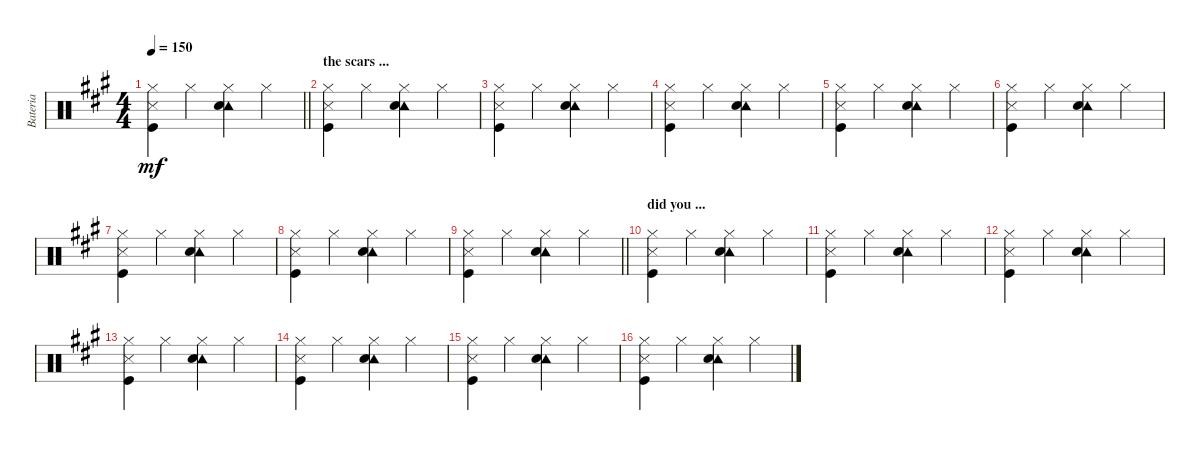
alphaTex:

\track ("Bateria" "Bateria") {instrument percussion}
\staff {score}
\articulation defaults
\ts (4 4)
\tempo 150
\clef neutral
\barLineRight lightlight
\ks a
("Hi-Hat (closed)" "Metronome (hit)" "Kick (hit)").4{dy mf} "Hi-Hat (closed)".4 ("Tambourine (hit)" "Hi-Hat (closed)" "Electric Snare (hit)").4 "Hi-Hat (closed)".4 |
\section ("" "the scars ...")
("Hi-Hat (closed)" "Metronome (hit)" "Kick (hit)").4 "Hi-Hat (closed)".4 ("Tambourine (hit)" "Hi-Hat (closed)" "Electric Snare (hit)").4 "Hi-Hat (closed)".4 |
("Hi-Hat (closed)" "Metronome (hit)" "Kick (hit)").4 "Hi-Hat (closed)".4 ("Tambourine (hit)" "Hi-Hat (closed)" "Electric Snare (hit)").4 "Hi-Hat (closed)".4 |
("Hi-Hat (closed)" "Metronome (hit)" "Kick (hit)").4 "Hi-Hat (closed)".4 ("Tambourine (hit)" "Hi-Hat (closed)" "Electric Snare (hit)").4 "Hi-Hat (closed)".4 |
("Hi-Hat (closed)" "Metronome (hit)" "Kick (hit)").4 "Hi-Hat (closed)".4 ("Tambourine (hit)" "Hi-Hat (closed)" "Electric Snare (hit)").4 "Hi-Hat (closed)".4 |
("Hi-Hat (closed)" "Metronome (hit)" "Kick (hit)").4 "Hi-Hat (closed)".4 ("Tambourine (hit)" "Hi-Hat (closed)" "Electric Snare (hit)").4 "Hi-Hat (closed)".4 |
("Hi-Hat (closed)" "Metronome (hit)" "Kick (hit)").4 "Hi-Hat (closed)".4 ("Tambourine (hit)" "Hi-Hat (closed)" "Electric Snare (hit)").4 "Hi-Hat (closed)".4 |
("Hi-Hat (closed)" "Metronome (hit)" "Kick (hit)").4 "Hi-Hat (closed)".4 ("Tambourine (hit)" "Hi-Hat (closed)" "Electric Snare (hit)").4 "Hi-Hat (closed)".4 |
\barLineRight lightlight
("Hi-Hat (closed)" "Metronome (hit)" "Kick (hit)").4 "Hi-Hat (closed)".4 ("Tambourine (hit)" "Hi-Hat (closed)" "Electric Snare (hit)").4 "Hi-Hat (closed)".4 |
\section ("" "did you ...")
("Hi-Hat (closed)" "Metronome (hit)" "Kick (hit)").4 "Hi-Hat (closed)".4 ("Tambourine (hit)" "Hi-Hat (closed)" "Electric Snare (hit)").4 "Hi-Hat (closed)".4 |
("Hi-Hat (closed)" "Metronome (hit)" "Kick (hit)").4 "Hi-Hat (closed)".4 ("Tambourine (hit)" "Hi-Hat (closed)" "Electric Snare (hit)").4 "Hi-Hat (closed)".4 |
("Hi-Hat (closed)" "Metronome (hit)" "Kick (hit)").4 "Hi-Hat (closed)".4 ("Tambourine (hit)" "Hi-Hat (closed)" "Electric Snare (hit)").4 "Hi-Hat (closed)".4 |
("Hi-Hat (closed)" "Metronome (hit)" "Kick (hit)").4 "Hi-Hat (closed)".4 ("Tambourine (hit)" "Hi-Hat (closed)" "Electric Snare (hit)").4 "Hi-Hat (closed)".4 |
("Hi-Hat (closed)" "Metronome (hit)" "Kick (hit)").4 "Hi-Hat (closed)".4 ("Tambourine (hit)" "Hi-Hat (closed)" "Electric Snare (hit)").4 "Hi-Hat (closed)".4 |
("Hi-Hat (closed)" "Metronome (hit)" "Kick (hit)").4 "Hi-Hat (closed)".4 ("Tambourine (hit)" "Hi-Hat (closed)" "Electric Snare (hit)").4 "Hi-Hat (closed)".4 |
("Hi-Hat (closed)" "Metronome (hit)" "Kick (hit)").4 "Hi-Hat (closed)".4 ("Tambourine (hit)" "Hi-Hat (closed)" "Electric Snare (hit)").4 "Hi-Hat (closed)".4
